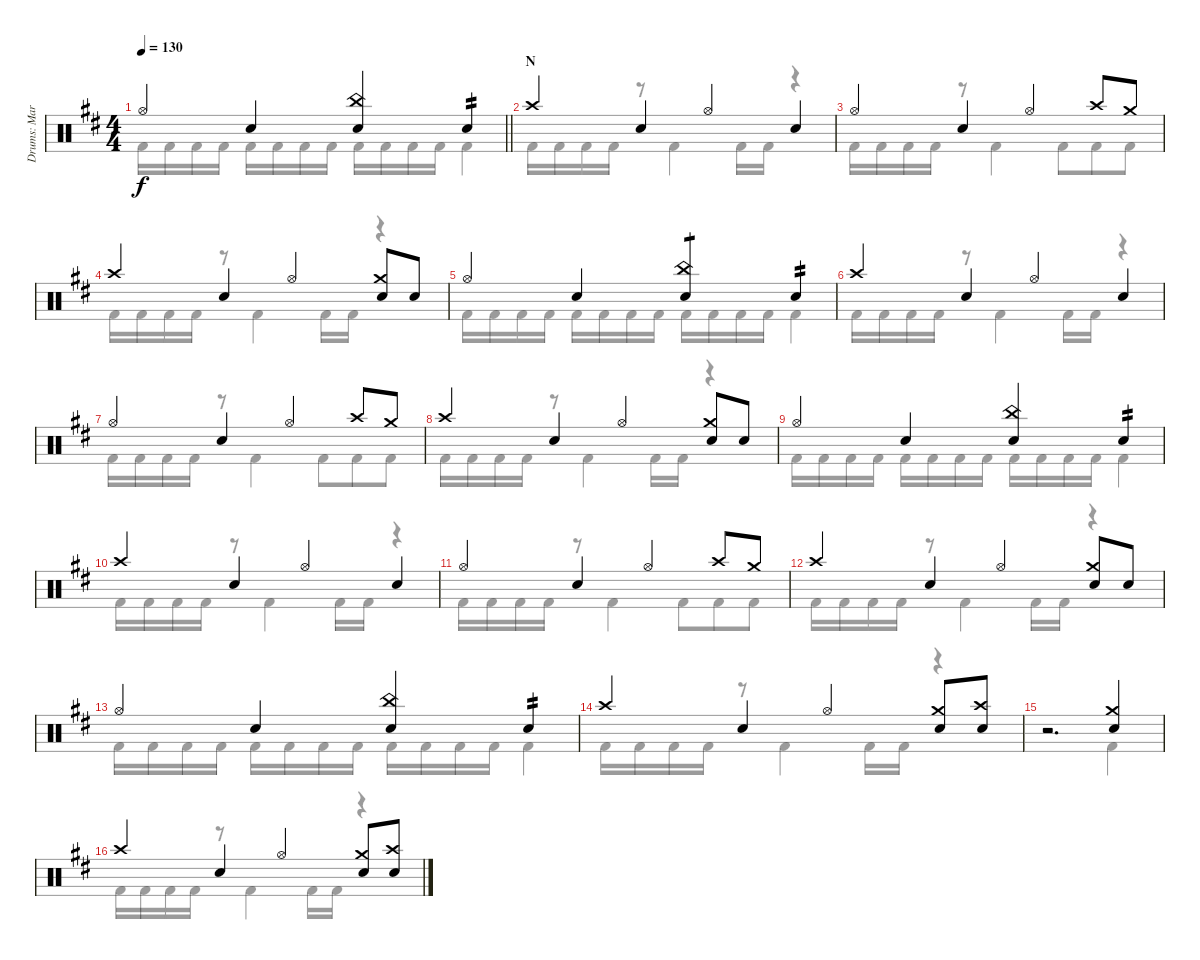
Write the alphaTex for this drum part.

\track ("Drums: Mark" "Drums: Mar") {instrument percussion}
\staff {score}
\articulation defaults
\voice
\ts (4 4)
\tempo 130
\clef neutral
\barLineRight lightlight
\ks d "Hi-Hat (open)".4{dy f} "Snare (hit) 2".4
("China (hit)" "Snare (hit) 2").4 "Snare (hit) 2".4{tp 2} |
\section ("" "N")
"Crash high (hit)".4 "Snare (hit) 2".4 "Hi-Hat (open)".4 "Snare (hit) 2".4 |
"Hi-Hat (open)".4 "Snare (hit) 2".4 "Hi-Hat (open)".4 "Crash high (hit)".8 "Crash medium (hit)".8 |
"Crash high (hit)".4 "Snare (hit) 2".4 "Hi-Hat (open)".4 ("Crash medium (hit)" "Snare (hit) 2").8 "Snare (hit) 2".8 |
"Hi-Hat (open)".4 "Snare (hit) 2".4 ("China (hit)" "Snare (hit) 2").4{tp 1} "Snare (hit) 2".4{tp 2} |
"Crash high (hit)".4 "Snare (hit) 2".4 "Hi-Hat (open)".4 "Snare (hit) 2".4 |
"Hi-Hat (open)".4 "Snare (hit) 2".4 "Hi-Hat (open)".4 "Crash high (hit)".8 "Crash medium (hit)".8 |
"Crash high (hit)".4 "Snare (hit) 2".4 "Hi-Hat (open)".4 ("Crash medium (hit)" "Snare (hit) 2").8 "Snare (hit) 2".8 |
"Hi-Hat (open)".4 "Snare (hit) 2".4 ("China (hit)" "Snare (hit) 2").4 "Snare (hit) 2".4{tp 2} |
"Crash high (hit)".4 "Snare (hit) 2".4 "Hi-Hat (open)".4 "Snare (hit) 2".4 |
"Hi-Hat (open)".4 "Snare (hit) 2".4 "Hi-Hat (open)".4 "Crash high (hit)".8 "Crash medium (hit)".8 |
"Crash high (hit)".4 "Snare (hit) 2".4 "Hi-Hat (open)".4 ("Crash medium (hit)" "Snare (hit) 2").8 "Snare (hit) 2".8 |
"Hi-Hat (open)".4 "Snare (hit) 2".4 ("China (hit)" "Snare (hit) 2").4 "Snare (hit) 2".4{tp 2} |
"Crash high (hit)".4 "Snare (hit) 2".4 "Hi-Hat (open)".4 ("Crash medium (hit)" "Snare (hit) 2").8 ("Crash high (hit)" "Snare (hit) 2").8 |
r.2{d} ("Crash medium (hit)" "Snare (hit) 2").4 |
"Crash high (hit)".4 "Snare (hit) 2".4 "Hi-Hat (open)".4 ("Crash medium (hit)" "Snare (hit) 2").8 ("Crash high (hit)" "Snare (hit) 2").8
\voice
\clef neutral
\ottava regular
\simile none
\barLineRight lightlight
\ks d "Kick (hit) 2".16{dy f} "Kick (hit) 2".16 "Kick (hit) 2".16 "Kick (hit) 2".16 "Kick (hit) 2".16 "Kick (hit) 2".16 "Kick (hit) 2".16 "Kick (hit) 2".16 "Kick (hit) 2".16 "Kick (hit) 2".16 "Kick (hit) 2".16 "Kick (hit) 2".16 "Kick (hit) 2".4
|
"Kick (hit) 2".16 "Kick (hit) 2".16 "Kick (hit) 2".16 "Kick (hit) 2".16 r.8 "Kick (hit) 2".4 "Kick (hit) 2".16 "Kick (hit) 2".16 r.4 |
"Kick (hit) 2".16 "Kick (hit) 2".16 "Kick (hit) 2".16 "Kick (hit) 2".16 r.8 "Kick (hit) 2".4 "Kick (hit) 2".8{beam merge} "Kick (hit) 2".8 "Kick (hit) 2".8 |
"Kick (hit) 2".16 "Kick (hit) 2".16 "Kick (hit) 2".16 "Kick (hit) 2".16 r.8 "Kick (hit) 2".4 "Kick (hit) 2".16 "Kick (hit) 2".16 r.4 |
"Kick (hit) 2".16 "Kick (hit) 2".16 "Kick (hit) 2".16 "Kick (hit) 2".16 "Kick (hit) 2".16 "Kick (hit) 2".16 "Kick (hit) 2".16 "Kick (hit) 2".16 "Kick (hit) 2".16 "Kick (hit) 2".16 "Kick (hit) 2".16 "Kick (hit) 2".16 "Kick (hit) 2".4 |
"Kick (hit) 2".16 "Kick (hit) 2".16 "Kick (hit) 2".16 "Kick (hit) 2".16 r.8 "Kick (hit) 2".4 "Kick (hit) 2".16 "Kick (hit) 2".16 r.4 |
"Kick (hit) 2".16 "Kick (hit) 2".16 "Kick (hit) 2".16 "Kick (hit) 2".16 r.8 "Kick (hit) 2".4 "Kick (hit) 2".8{beam merge} "Kick (hit) 2".8 "Kick (hit) 2".8 |
"Kick (hit) 2".16 "Kick (hit) 2".16 "Kick (hit) 2".16 "Kick (hit) 2".16 r.8 "Kick (hit) 2".4 "Kick (hit) 2".16 "Kick (hit) 2".16 r.4 |
"Kick (hit) 2".16 "Kick (hit) 2".16 "Kick (hit) 2".16 "Kick (hit) 2".16 "Kick (hit) 2".16 "Kick (hit) 2".16 "Kick (hit) 2".16 "Kick (hit) 2".16 "Kick (hit) 2".16 "Kick (hit) 2".16 "Kick (hit) 2".16 "Kick (hit) 2".16 "Kick (hit) 2".4 |
"Kick (hit) 2".16 "Kick (hit) 2".16 "Kick (hit) 2".16 "Kick (hit) 2".16 r.8 "Kick (hit) 2".4 "Kick (hit) 2".16 "Kick (hit) 2".16 r.4 |
"Kick (hit) 2".16 "Kick (hit) 2".16 "Kick (hit) 2".16 "Kick (hit) 2".16 r.8 "Kick (hit) 2".4 "Kick (hit) 2".8{beam merge} "Kick (hit) 2".8 "Kick (hit) 2".8 |
"Kick (hit) 2".16 "Kick (hit) 2".16 "Kick (hit) 2".16 "Kick (hit) 2".16 r.8 "Kick (hit) 2".4 "Kick (hit) 2".16 "Kick (hit) 2".16 r.4 |
"Kick (hit) 2".16 "Kick (hit) 2".16 "Kick (hit) 2".16 "Kick (hit) 2".16 "Kick (hit) 2".16 "Kick (hit) 2".16 "Kick (hit) 2".16 "Kick (hit) 2".16 "Kick (hit) 2".16 "Kick (hit) 2".16 "Kick (hit) 2".16 "Kick (hit) 2".16 "Kick (hit) 2".4 |
"Kick (hit) 2".16 "Kick (hit) 2".16 "Kick (hit) 2".16 "Kick (hit) 2".16 r.8 "Kick (hit) 2".4 "Kick (hit) 2".16 "Kick (hit) 2".16 r.4 |
r.2{d} "Kick (hit) 2".4 |
"Kick (hit) 2".16 "Kick (hit) 2".16 "Kick (hit) 2".16 "Kick (hit) 2".16 r.8 "Kick (hit) 2".4 "Kick (hit) 2".16 "Kick (hit) 2".16 r.4
